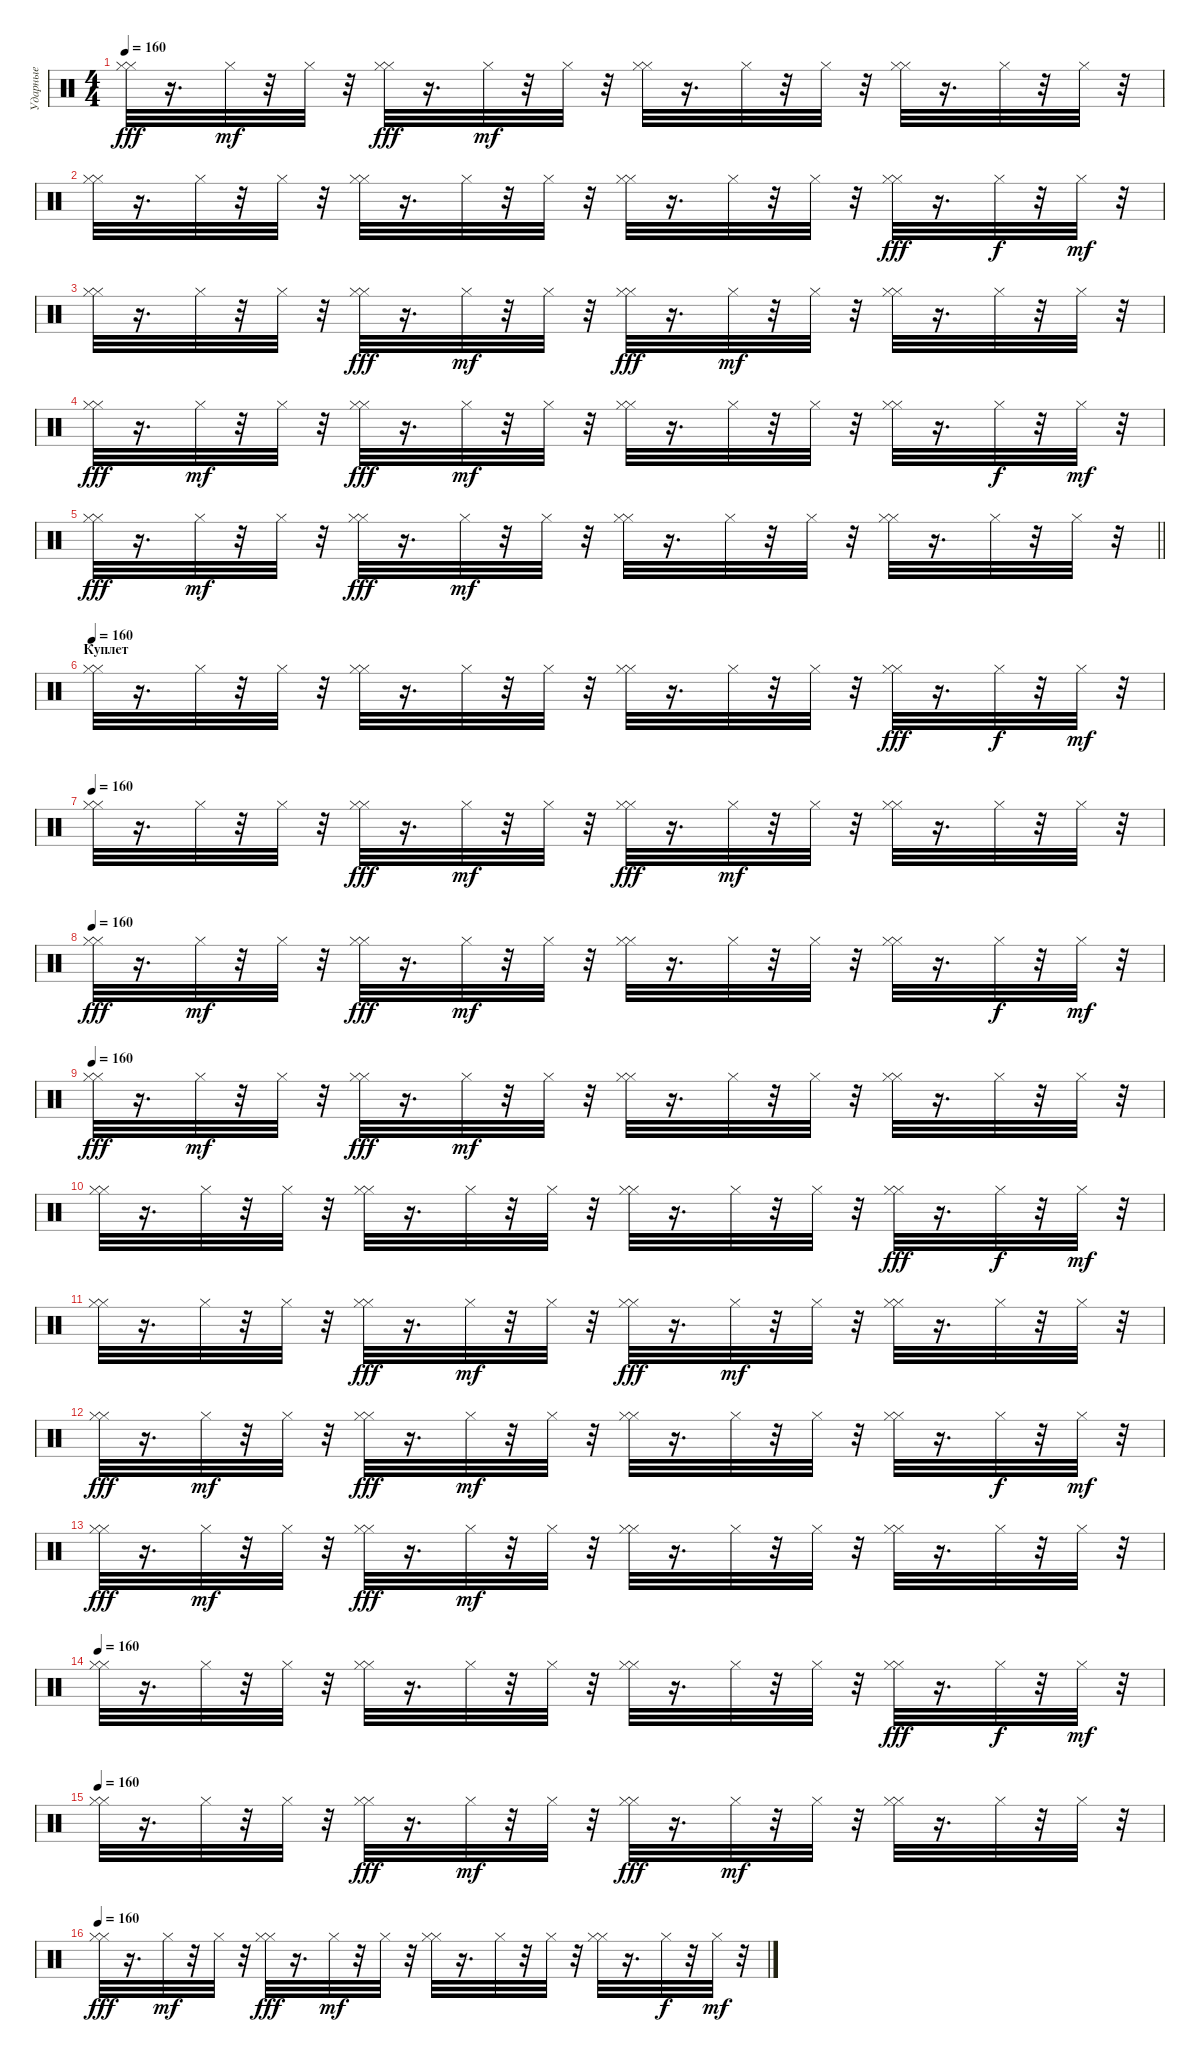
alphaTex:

\track ("Ударные" "Ударные") {instrument percussion}
\staff {score}
\articulation defaults
\ts (4 4)
\tempo 160
\clef neutral
\ks c
("Hi-Hat (closed)" "Hi-Hat (closed)").32{dy fff} r.16{d} "Hi-Hat (closed)".32{dy mf} r.32 "Hi-Hat (closed)".32 r.32 ("Hi-Hat (closed)" "Hi-Hat (closed)").32{dy fff} r.16{d} "Hi-Hat (closed)".32{dy mf} r.32 "Hi-Hat (closed)".32 r.32 ("Hi-Hat (closed)" "Hi-Hat (closed)").32 r.16{d} "Hi-Hat (closed)".32 r.32 "Hi-Hat (closed)".32 r.32 ("Hi-Hat (closed)" "Hi-Hat (closed)").32 r.16{d} "Hi-Hat (closed)".32 r.32 "Hi-Hat (closed)".32 r.32 |
("Hi-Hat (closed)" "Hi-Hat (closed)").32 r.16{d} "Hi-Hat (closed)".32 r.32 "Hi-Hat (closed)".32 r.32 ("Hi-Hat (closed)" "Hi-Hat (closed)").32 r.16{d} "Hi-Hat (closed)".32 r.32 "Hi-Hat (closed)".32 r.32 ("Hi-Hat (closed)" "Hi-Hat (closed)").32 r.16{d} "Hi-Hat (closed)".32 r.32 "Hi-Hat (closed)".32 r.32 ("Hi-Hat (closed)" "Hi-Hat (closed)").32{dy fff} r.16{d} "Hi-Hat (closed)".32{dy f} r.32 "Hi-Hat (closed)".32{dy mf} r.32 |
("Hi-Hat (closed)" "Hi-Hat (closed)").32 r.16{d} "Hi-Hat (closed)".32 r.32 "Hi-Hat (closed)".32 r.32 ("Hi-Hat (closed)" "Hi-Hat (closed)").32{dy fff} r.16{d} "Hi-Hat (closed)".32{dy mf} r.32 "Hi-Hat (closed)".32 r.32 ("Hi-Hat (closed)" "Hi-Hat (closed)").32{dy fff} r.16{d} "Hi-Hat (closed)".32{dy mf} r.32 "Hi-Hat (closed)".32 r.32 ("Hi-Hat (closed)" "Hi-Hat (closed)").32 r.16{d} "Hi-Hat (closed)".32 r.32 "Hi-Hat (closed)".32 r.32 |
("Hi-Hat (closed)" "Hi-Hat (closed)").32{dy fff} r.16{d} "Hi-Hat (closed)".32{dy mf} r.32 "Hi-Hat (closed)".32 r.32 ("Hi-Hat (closed)" "Hi-Hat (closed)").32{dy fff} r.16{d} "Hi-Hat (closed)".32{dy mf} r.32 "Hi-Hat (closed)".32 r.32 ("Hi-Hat (closed)" "Hi-Hat (closed)").32 r.16{d} "Hi-Hat (closed)".32 r.32 "Hi-Hat (closed)".32 r.32 ("Hi-Hat (closed)" "Hi-Hat (closed)").32 r.16{d} "Hi-Hat (closed)".32{dy f} r.32 "Hi-Hat (closed)".32{dy mf} r.32 |
\barLineRight lightlight
("Hi-Hat (closed)" "Hi-Hat (closed)").32{dy fff} r.16{d} "Hi-Hat (closed)".32{dy mf} r.32 "Hi-Hat (closed)".32 r.32 ("Hi-Hat (closed)" "Hi-Hat (closed)").32{dy fff} r.16{d} "Hi-Hat (closed)".32{dy mf} r.32 "Hi-Hat (closed)".32 r.32 ("Hi-Hat (closed)" "Hi-Hat (closed)").32 r.16{d} "Hi-Hat (closed)".32 r.32 "Hi-Hat (closed)".32 r.32 ("Hi-Hat (closed)" "Hi-Hat (closed)").32 r.16{d} "Hi-Hat (closed)".32 r.32 "Hi-Hat (closed)".32 r.32 |
\section ("" "Куплет")
\tempo 160
("Hi-Hat (closed)" "Hi-Hat (closed)").32 r.16{d} "Hi-Hat (closed)".32 r.32 "Hi-Hat (closed)".32 r.32 ("Hi-Hat (closed)" "Hi-Hat (closed)").32 r.16{d} "Hi-Hat (closed)".32 r.32 "Hi-Hat (closed)".32 r.32 ("Hi-Hat (closed)" "Hi-Hat (closed)").32 r.16{d} "Hi-Hat (closed)".32 r.32 "Hi-Hat (closed)".32 r.32 ("Hi-Hat (closed)" "Hi-Hat (closed)").32{dy fff} r.16{d} "Hi-Hat (closed)".32{dy f} r.32 "Hi-Hat (closed)".32{dy mf} r.32 |
\tempo 160
("Hi-Hat (closed)" "Hi-Hat (closed)").32 r.16{d} "Hi-Hat (closed)".32 r.32 "Hi-Hat (closed)".32 r.32 ("Hi-Hat (closed)" "Hi-Hat (closed)").32{dy fff} r.16{d} "Hi-Hat (closed)".32{dy mf} r.32 "Hi-Hat (closed)".32 r.32 ("Hi-Hat (closed)" "Hi-Hat (closed)").32{dy fff} r.16{d} "Hi-Hat (closed)".32{dy mf} r.32 "Hi-Hat (closed)".32 r.32 ("Hi-Hat (closed)" "Hi-Hat (closed)").32 r.16{d} "Hi-Hat (closed)".32 r.32 "Hi-Hat (closed)".32 r.32 |
\tempo 160
("Hi-Hat (closed)" "Hi-Hat (closed)").32{dy fff} r.16{d} "Hi-Hat (closed)".32{dy mf} r.32 "Hi-Hat (closed)".32 r.32 ("Hi-Hat (closed)" "Hi-Hat (closed)").32{dy fff} r.16{d} "Hi-Hat (closed)".32{dy mf} r.32 "Hi-Hat (closed)".32 r.32 ("Hi-Hat (closed)" "Hi-Hat (closed)").32 r.16{d} "Hi-Hat (closed)".32 r.32 "Hi-Hat (closed)".32 r.32 ("Hi-Hat (closed)" "Hi-Hat (closed)").32 r.16{d} "Hi-Hat (closed)".32{dy f} r.32 "Hi-Hat (closed)".32{dy mf} r.32 |
\tempo 160
("Hi-Hat (closed)" "Hi-Hat (closed)").32{dy fff} r.16{d} "Hi-Hat (closed)".32{dy mf} r.32 "Hi-Hat (closed)".32 r.32 ("Hi-Hat (closed)" "Hi-Hat (closed)").32{dy fff} r.16{d} "Hi-Hat (closed)".32{dy mf} r.32 "Hi-Hat (closed)".32 r.32 ("Hi-Hat (closed)" "Hi-Hat (closed)").32 r.16{d} "Hi-Hat (closed)".32 r.32 "Hi-Hat (closed)".32 r.32 ("Hi-Hat (closed)" "Hi-Hat (closed)").32 r.16{d} "Hi-Hat (closed)".32 r.32 "Hi-Hat (closed)".32 r.32 |
("Hi-Hat (closed)" "Hi-Hat (closed)").32 r.16{d} "Hi-Hat (closed)".32 r.32 "Hi-Hat (closed)".32 r.32 ("Hi-Hat (closed)" "Hi-Hat (closed)").32 r.16{d} "Hi-Hat (closed)".32 r.32 "Hi-Hat (closed)".32 r.32 ("Hi-Hat (closed)" "Hi-Hat (closed)").32 r.16{d} "Hi-Hat (closed)".32 r.32 "Hi-Hat (closed)".32 r.32 ("Hi-Hat (closed)" "Hi-Hat (closed)").32{dy fff} r.16{d} "Hi-Hat (closed)".32{dy f} r.32 "Hi-Hat (closed)".32{dy mf} r.32 |
("Hi-Hat (closed)" "Hi-Hat (closed)").32 r.16{d} "Hi-Hat (closed)".32 r.32 "Hi-Hat (closed)".32 r.32 ("Hi-Hat (closed)" "Hi-Hat (closed)").32{dy fff} r.16{d} "Hi-Hat (closed)".32{dy mf} r.32 "Hi-Hat (closed)".32 r.32 ("Hi-Hat (closed)" "Hi-Hat (closed)").32{dy fff} r.16{d} "Hi-Hat (closed)".32{dy mf} r.32 "Hi-Hat (closed)".32 r.32 ("Hi-Hat (closed)" "Hi-Hat (closed)").32 r.16{d} "Hi-Hat (closed)".32 r.32 "Hi-Hat (closed)".32 r.32 |
("Hi-Hat (closed)" "Hi-Hat (closed)").32{dy fff} r.16{d} "Hi-Hat (closed)".32{dy mf} r.32 "Hi-Hat (closed)".32 r.32 ("Hi-Hat (closed)" "Hi-Hat (closed)").32{dy fff} r.16{d} "Hi-Hat (closed)".32{dy mf} r.32 "Hi-Hat (closed)".32 r.32 ("Hi-Hat (closed)" "Hi-Hat (closed)").32 r.16{d} "Hi-Hat (closed)".32 r.32 "Hi-Hat (closed)".32 r.32 ("Hi-Hat (closed)" "Hi-Hat (closed)").32 r.16{d} "Hi-Hat (closed)".32{dy f} r.32 "Hi-Hat (closed)".32{dy mf} r.32 |
("Hi-Hat (closed)" "Hi-Hat (closed)").32{dy fff} r.16{d} "Hi-Hat (closed)".32{dy mf} r.32 "Hi-Hat (closed)".32 r.32 ("Hi-Hat (closed)" "Hi-Hat (closed)").32{dy fff} r.16{d} "Hi-Hat (closed)".32{dy mf} r.32 "Hi-Hat (closed)".32 r.32 ("Hi-Hat (closed)" "Hi-Hat (closed)").32 r.16{d} "Hi-Hat (closed)".32 r.32 "Hi-Hat (closed)".32 r.32 ("Hi-Hat (closed)" "Hi-Hat (closed)").32 r.16{d} "Hi-Hat (closed)".32 r.32 "Hi-Hat (closed)".32 r.32 |
\tempo 160
("Hi-Hat (closed)" "Hi-Hat (closed)").32 r.16{d} "Hi-Hat (closed)".32 r.32 "Hi-Hat (closed)".32 r.32 ("Hi-Hat (closed)" "Hi-Hat (closed)").32 r.16{d} "Hi-Hat (closed)".32 r.32 "Hi-Hat (closed)".32 r.32 ("Hi-Hat (closed)" "Hi-Hat (closed)").32 r.16{d} "Hi-Hat (closed)".32 r.32 "Hi-Hat (closed)".32 r.32 ("Hi-Hat (closed)" "Hi-Hat (closed)").32{dy fff} r.16{d} "Hi-Hat (closed)".32{dy f} r.32 "Hi-Hat (closed)".32{dy mf} r.32 |
\tempo 160
("Hi-Hat (closed)" "Hi-Hat (closed)").32 r.16{d} "Hi-Hat (closed)".32 r.32 "Hi-Hat (closed)".32 r.32 ("Hi-Hat (closed)" "Hi-Hat (closed)").32{dy fff} r.16{d} "Hi-Hat (closed)".32{dy mf} r.32 "Hi-Hat (closed)".32 r.32 ("Hi-Hat (closed)" "Hi-Hat (closed)").32{dy fff} r.16{d} "Hi-Hat (closed)".32{dy mf} r.32 "Hi-Hat (closed)".32 r.32 ("Hi-Hat (closed)" "Hi-Hat (closed)").32 r.16{d} "Hi-Hat (closed)".32 r.32 "Hi-Hat (closed)".32 r.32 |
\tempo 160
("Hi-Hat (closed)" "Hi-Hat (closed)").32{dy fff} r.16{d} "Hi-Hat (closed)".32{dy mf} r.32 "Hi-Hat (closed)".32 r.32 ("Hi-Hat (closed)" "Hi-Hat (closed)").32{dy fff} r.16{d} "Hi-Hat (closed)".32{dy mf} r.32 "Hi-Hat (closed)".32 r.32 ("Hi-Hat (closed)" "Hi-Hat (closed)").32 r.16{d} "Hi-Hat (closed)".32 r.32 "Hi-Hat (closed)".32 r.32 ("Hi-Hat (closed)" "Hi-Hat (closed)").32 r.16{d} "Hi-Hat (closed)".32{dy f} r.32 "Hi-Hat (closed)".32{dy mf} r.32
